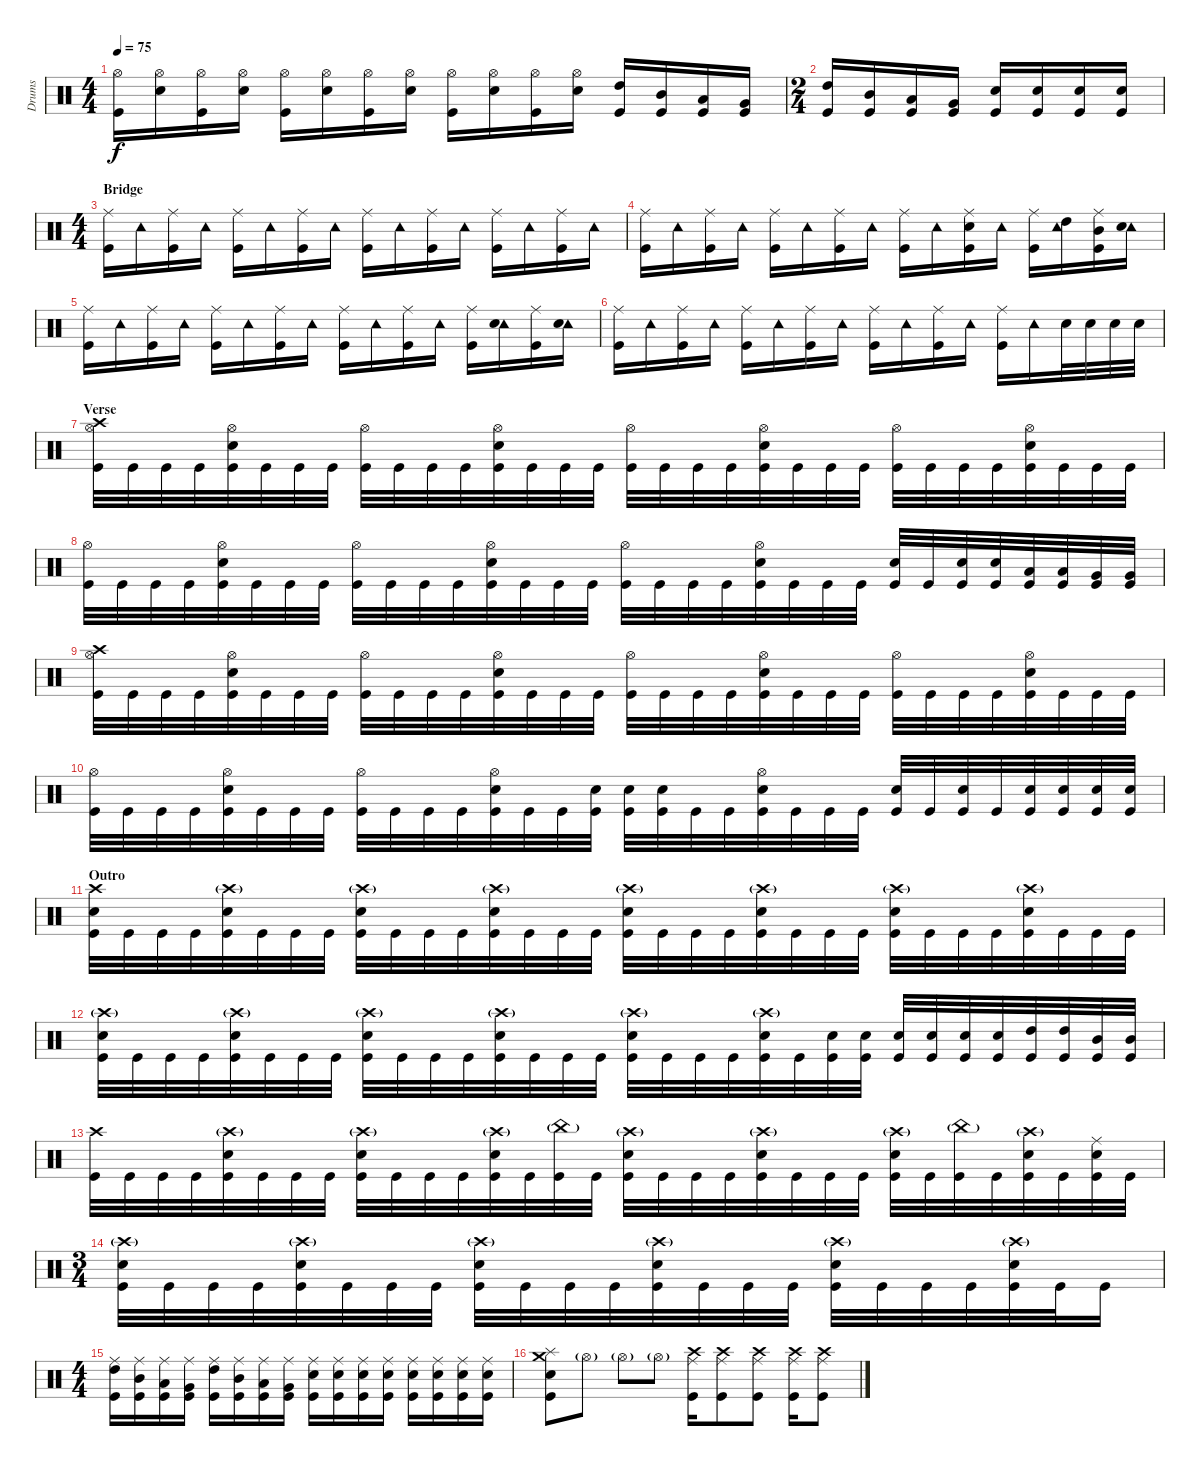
\track ("Drums" "Drums") {instrument percussion}
\staff {score}
\articulation defaults
\ts (4 4)
\tempo 75
\clef neutral
\ks c
("Hi-Hat (open)" "Kick (hit)").16{dy f} ("Hi-Hat (open)" "Snare (hit) 2").16 ("Hi-Hat (open)" "Kick (hit)").16 ("Hi-Hat (open)" "Snare (hit) 2").16 ("Hi-Hat (open)" "Kick (hit)").16 ("Hi-Hat (open)" "Snare (hit) 2").16 ("Hi-Hat (open)" "Kick (hit)").16 ("Hi-Hat (open)" "Snare (hit) 2").16 ("Hi-Hat (open)" "Kick (hit)").16 ("Hi-Hat (open)" "Snare (hit) 2").16 ("Hi-Hat (open)" "Kick (hit)").16 ("Hi-Hat (open)" "Snare (hit) 2").16 ("High Tom (hit)" "Kick (hit)").16 ("Mid Tom (hit)" "Kick (hit)").16 ("Low Tom (hit)" "Kick (hit)").16 ("Very Low Tom (hit)" "Kick (hit)").16 |
\ts (2 4)
("High Tom (hit)" "Kick (hit)").16 ("Mid Tom (hit)" "Kick (hit)").16 ("Low Tom (hit)" "Kick (hit)").16 ("Very Low Tom (hit)" "Kick (hit)").16 ("Snare (hit) 2" "Kick (hit)").16 ("Snare (hit) 2" "Kick (hit)").16 ("Snare (hit) 2" "Kick (hit)").16 ("Snare (hit) 2" "Kick (hit)").16 |
\ts (4 4)
\section ("" "Bridge")
("Ride (middle)" "Kick (hit)").16 "Tambourine (hit)".16 ("Ride (middle)" "Kick (hit)").16 "Tambourine (hit)".16 ("Ride (middle)" "Kick (hit)").16 "Tambourine (hit)".16 ("Ride (middle)" "Kick (hit)").16 "Tambourine (hit)".16 ("Ride (middle)" "Kick (hit)").16 "Tambourine (hit)".16 ("Ride (middle)" "Kick (hit)").16 "Tambourine (hit)".16 ("Ride (middle)" "Kick (hit)").16 "Tambourine (hit)".16 ("Ride (middle)" "Kick (hit)").16 "Tambourine (hit)".16 |
("Ride (middle)" "Kick (hit)").16 "Tambourine (hit)".16 ("Ride (middle)" "Kick (hit)").16 "Tambourine (hit)".16 ("Ride (middle)" "Kick (hit)").16 "Tambourine (hit)".16 ("Ride (middle)" "Kick (hit)").16 "Tambourine (hit)".16 ("Ride (middle)" "Kick (hit)").16 "Tambourine (hit)".16 ("Ride (middle)" "Snare (hit) 2" "Kick (hit)").16 "Tambourine (hit)".16 ("Ride (middle)" "Kick (hit)").16 ("Tambourine (hit)" "High Tom (hit)").16 ("Ride (middle)" "Mid Tom (hit)" "Kick (hit)").16 ("Tambourine (hit)" "Snare (hit) 2").16 |
("Ride (middle)" "Kick (hit)").16 "Tambourine (hit)".16 ("Ride (middle)" "Kick (hit)").16 "Tambourine (hit)".16 ("Ride (middle)" "Kick (hit)").16 "Tambourine (hit)".16 ("Ride (middle)" "Kick (hit)").16 "Tambourine (hit)".16 ("Ride (middle)" "Kick (hit)").16 "Tambourine (hit)".16 ("Ride (middle)" "Kick (hit)").16 "Tambourine (hit)".16 ("Ride (middle)" "Kick (hit)").16 ("Tambourine (hit)" "Snare (hit) 2").16 ("Ride (middle)" "Kick (hit)").16 ("Tambourine (hit)" "Snare (hit) 2").16 |
("Ride (middle)" "Kick (hit)").16 "Tambourine (hit)".16 ("Ride (middle)" "Kick (hit)").16 "Tambourine (hit)".16 ("Ride (middle)" "Kick (hit)").16 "Tambourine (hit)".16 ("Ride (middle)" "Kick (hit)").16 "Tambourine (hit)".16 ("Ride (middle)" "Kick (hit)").16 "Tambourine (hit)".16 ("Ride (middle)" "Kick (hit)").16 "Tambourine (hit)".16 ("Ride (middle)" "Kick (hit)").16 "Tambourine (hit)".16 "Snare (hit) 2".32 "Snare (hit) 2".32 "Snare (hit) 2".32 "Snare (hit) 2".32 |
\section ("" "Verse")
("Crash high (hit)" "Hi-Hat (open)" "Kick (hit)").32 "Kick (hit)".32 "Kick (hit)".32 "Kick (hit)".32 ("Hi-Hat (open)" "Snare (hit) 2" "Kick (hit)").32 "Kick (hit)".32 "Kick (hit)".32 "Kick (hit)".32 ("Hi-Hat (open)" "Kick (hit)").32 "Kick (hit)".32 "Kick (hit)".32 "Kick (hit)".32 ("Hi-Hat (open)" "Snare (hit) 2" "Kick (hit)").32 "Kick (hit)".32 "Kick (hit)".32 "Kick (hit)".32 ("Hi-Hat (open)" "Kick (hit)").32 "Kick (hit)".32 "Kick (hit)".32 "Kick (hit)".32 ("Hi-Hat (open)" "Snare (hit) 2" "Kick (hit)").32 "Kick (hit)".32 "Kick (hit)".32 "Kick (hit)".32 ("Hi-Hat (open)" "Kick (hit)").32 "Kick (hit)".32 "Kick (hit)".32 "Kick (hit)".32 ("Hi-Hat (open)" "Snare (hit) 2" "Kick (hit)").32 "Kick (hit)".32 "Kick (hit)".32 "Kick (hit)".32 |
("Hi-Hat (open)" "Kick (hit)").32 "Kick (hit)".32 "Kick (hit)".32 "Kick (hit)".32 ("Hi-Hat (open)" "Snare (hit) 2" "Kick (hit)").32 "Kick (hit)".32 "Kick (hit)".32 "Kick (hit)".32 ("Hi-Hat (open)" "Kick (hit)").32 "Kick (hit)".32 "Kick (hit)".32 "Kick (hit)".32 ("Hi-Hat (open)" "Snare (hit) 2" "Kick (hit)").32 "Kick (hit)".32 "Kick (hit)".32 "Kick (hit)".32 ("Hi-Hat (open)" "Kick (hit)").32 "Kick (hit)".32 "Kick (hit)".32 "Kick (hit)".32 ("Hi-Hat (open)" "Snare (hit) 2" "Kick (hit)").32 "Kick (hit)".32 "Kick (hit)".32 "Kick (hit)".32 ("Snare (hit) 2" "Kick (hit)").32 "Kick (hit)".32 ("Snare (hit) 2" "Kick (hit)").32 ("Snare (hit) 2" "Kick (hit)").32 ("Low Tom (hit)" "Kick (hit)").32 ("Low Tom (hit)" "Kick (hit)").32 ("Very Low Tom (hit)" "Kick (hit)").32 ("Very Low Tom (hit)" "Kick (hit)").32 |
("Crash high (hit)" "Hi-Hat (open)" "Kick (hit)").32 "Kick (hit)".32 "Kick (hit)".32 "Kick (hit)".32 ("Hi-Hat (open)" "Snare (hit) 2" "Kick (hit)").32 "Kick (hit)".32 "Kick (hit)".32 "Kick (hit)".32 ("Hi-Hat (open)" "Kick (hit)").32 "Kick (hit)".32 "Kick (hit)".32 "Kick (hit)".32 ("Hi-Hat (open)" "Snare (hit) 2" "Kick (hit)").32 "Kick (hit)".32 "Kick (hit)".32 "Kick (hit)".32 ("Hi-Hat (open)" "Kick (hit)").32 "Kick (hit)".32 "Kick (hit)".32 "Kick (hit)".32 ("Hi-Hat (open)" "Snare (hit) 2" "Kick (hit)").32 "Kick (hit)".32 "Kick (hit)".32 "Kick (hit)".32 ("Hi-Hat (open)" "Kick (hit)").32 "Kick (hit)".32 "Kick (hit)".32 "Kick (hit)".32 ("Hi-Hat (open)" "Snare (hit) 2" "Kick (hit)").32 "Kick (hit)".32 "Kick (hit)".32 "Kick (hit)".32 |
("Hi-Hat (open)" "Kick (hit)").32 "Kick (hit)".32 "Kick (hit)".32 "Kick (hit)".32 ("Hi-Hat (open)" "Snare (hit) 2" "Kick (hit)").32 "Kick (hit)".32 "Kick (hit)".32 "Kick (hit)".32 ("Hi-Hat (open)" "Kick (hit)").32 "Kick (hit)".32 "Kick (hit)".32 "Kick (hit)".32 ("Hi-Hat (open)" "Snare (hit) 2" "Kick (hit)").32 "Kick (hit)".32 "Kick (hit)".32 ("Snare (hit) 2" "Kick (hit)").32 ("Snare (hit) 2" "Kick (hit)").32 ("Snare (hit) 2" "Kick (hit)").32 "Kick (hit)".32 "Kick (hit)".32 ("Hi-Hat (open)" "Snare (hit) 2" "Kick (hit)").32 "Kick (hit)".32 "Kick (hit)".32 "Kick (hit)".32 ("Snare (hit) 2" "Kick (hit)").32 "Kick (hit)".32 ("Snare (hit) 2" "Kick (hit)").32 "Kick (hit)".32 ("Snare (hit) 2" "Kick (hit)").32 ("Snare (hit) 2" "Kick (hit)").32 ("Snare (hit) 2" "Kick (hit)").32 ("Snare (hit) 2" "Kick (hit)").32 |
\section ("" "Outro")
("Crash high (hit)" "Snare (hit) 2" "Kick (hit)").32 "Kick (hit)".32 "Kick (hit)".32 "Kick (hit)".32 ("Crash high (hit)"{g} "Snare (hit) 2" "Kick (hit)").32 "Kick (hit)".32 "Kick (hit)".32 "Kick (hit)".32 ("Crash high (hit)"{g} "Snare (hit) 2" "Kick (hit)").32 "Kick (hit)".32 "Kick (hit)".32 "Kick (hit)".32 ("Crash high (hit)"{g} "Snare (hit) 2" "Kick (hit)").32 "Kick (hit)".32 "Kick (hit)".32 "Kick (hit)".32 ("Crash high (hit)"{g} "Snare (hit) 2" "Kick (hit)").32 "Kick (hit)".32 "Kick (hit)".32 "Kick (hit)".32 ("Crash high (hit)"{g} "Snare (hit) 2" "Kick (hit)").32 "Kick (hit)".32 "Kick (hit)".32 "Kick (hit)".32 ("Crash high (hit)"{g} "Snare (hit) 2" "Kick (hit)").32 "Kick (hit)".32 "Kick (hit)".32 "Kick (hit)".32 ("Crash high (hit)"{g} "Snare (hit) 2" "Kick (hit)").32 "Kick (hit)".32 "Kick (hit)".32 "Kick (hit)".32 |
("Crash high (hit)"{g} "Snare (hit) 2" "Kick (hit)").32 "Kick (hit)".32 "Kick (hit)".32 "Kick (hit)".32 ("Crash high (hit)"{g} "Snare (hit) 2" "Kick (hit)").32 "Kick (hit)".32 "Kick (hit)".32 "Kick (hit)".32 ("Crash high (hit)"{g} "Snare (hit) 2" "Kick (hit)").32 "Kick (hit)".32 "Kick (hit)".32 "Kick (hit)".32 ("Crash high (hit)"{g} "Snare (hit) 2" "Kick (hit)").32 "Kick (hit)".32 "Kick (hit)".32 "Kick (hit)".32 ("Crash high (hit)"{g} "Snare (hit) 2" "Kick (hit)").32 "Kick (hit)".32 "Kick (hit)".32 "Kick (hit)".32 ("Crash high (hit)"{g} "Snare (hit) 2" "Kick (hit)").32 "Kick (hit)".32 ("Snare (hit) 2" "Kick (hit)").32 ("Snare (hit) 2" "Kick (hit)").32 ("Snare (hit) 2" "Kick (hit)").32 ("Snare (hit) 2" "Kick (hit)").32 ("Snare (hit) 2" "Kick (hit)").32 ("Snare (hit) 2" "Kick (hit)").32 ("High Tom (hit)" "Kick (hit)").32 ("High Tom (hit)" "Kick (hit)").32 ("Mid Tom (hit)" "Kick (hit)").32 ("Mid Tom (hit)" "Kick (hit)").32 |
("Crash high (hit)" "Kick (hit)").32 "Kick (hit)".32 "Kick (hit)".32 "Kick (hit)".32 ("Crash high (hit)"{g} "Snare (hit) 2" "Kick (hit)").32 "Kick (hit)".32 "Kick (hit)".32 "Kick (hit)".32 ("Crash high (hit)"{g} "Snare (hit) 2" "Kick (hit)").32 "Kick (hit)".32 "Kick (hit)".32 "Kick (hit)".32 ("Crash high (hit)"{g} "Snare (hit) 2" "Kick (hit)").32 "Kick (hit)".32 ("China (hit)"{g} "Kick (hit)").32 "Kick (hit)".32 ("Crash high (hit)"{g} "Snare (hit) 2" "Kick (hit)").32 "Kick (hit)".32 "Kick (hit)".32 "Kick (hit)".32 ("Crash high (hit)"{g} "Snare (hit) 2" "Kick (hit)").32 "Kick (hit)".32 "Kick (hit)".32 "Kick (hit)".32 ("Crash high (hit)"{g} "Snare (hit) 2" "Kick (hit)").32 "Kick (hit)".32 ("China (hit)"{g} "Kick (hit)").32 "Kick (hit)".32 ("Crash high (hit)"{g} "Snare (hit) 2" "Kick (hit)").32 "Kick (hit)".32 ("Ride (middle)" "Snare (hit) 2" "Kick (hit)").32 "Kick (hit)".32 |
\ts (3 4)
("Crash high (hit)"{g} "Snare (hit) 2" "Kick (hit)").32 "Kick (hit)".32 "Kick (hit)".32 "Kick (hit)".32 ("Crash high (hit)"{g} "Snare (hit) 2" "Kick (hit)").32 "Kick (hit)".32 "Kick (hit)".32 "Kick (hit)".32 ("Crash high (hit)"{g} "Snare (hit) 2" "Kick (hit)").32 "Kick (hit)".32 "Kick (hit)".32 "Kick (hit)".32 ("Crash high (hit)"{g} "Snare (hit) 2" "Kick (hit)").32 "Kick (hit)".32 "Kick (hit)".32 "Kick (hit)".32 ("Crash high (hit)"{g} "Snare (hit) 2" "Kick (hit)").32 "Kick (hit)".32 "Kick (hit)".32 "Kick (hit)".32 ("Crash high (hit)"{g} "Snare (hit) 2" "Kick (hit)").32 "Kick (hit)".32 "Kick (hit)".16 |
\ts (4 4)
("Ride (middle)" "High Tom (hit)" "Kick (hit)").16 ("Ride (middle)" "Mid Tom (hit)" "Kick (hit)").16 ("Ride (middle)" "Low Tom (hit)" "Kick (hit)").16 ("Ride (middle)" "Very Low Tom (hit)" "Kick (hit)").16 ("Ride (middle)" "High Tom (hit)" "Kick (hit)").16 ("Ride (middle)" "Mid Tom (hit)" "Kick (hit)").16 ("Ride (middle)" "Low Tom (hit)" "Kick (hit)").16 ("Ride (middle)" "Very Low Tom (hit)" "Kick (hit)").16 ("Ride (middle)" "Snare (hit) 2" "Kick (hit)").16 ("Ride (middle)" "Snare (hit) 2" "Kick (hit)").16 ("Ride (middle)" "Snare (hit) 2" "Kick (hit)").16 ("Ride (middle)" "Snare (hit) 2" "Kick (hit)").16 ("Ride (middle)" "Snare (hit) 2" "Kick (hit)").16 ("Ride (middle)" "Snare (hit) 2" "Kick (hit)").16 ("Ride (middle)" "Snare (hit) 2" "Kick (hit)").16 ("Ride (middle)" "Snare (hit) 2" "Kick (hit)").16 |
("Crash medium (hit)" "Splash (hit)" "Snare (hit) 2" "Kick (hit)").8 "Hi-Hat (open)"{g}.8 "Hi-Hat (open)"{g}.8 "Hi-Hat (open)"{g}.8 ("Crash high (hit)" "Ride (middle)" "Kick (hit)").16 ("Crash high (hit)" "Ride (middle)" "Kick (hit)").8 ("Crash high (hit)" "Ride (middle)" "Kick (hit)").8 ("Crash high (hit)" "Ride (middle)" "Kick (hit)").16 ("Crash high (hit)" "Ride (middle)" "Kick (hit)").8
